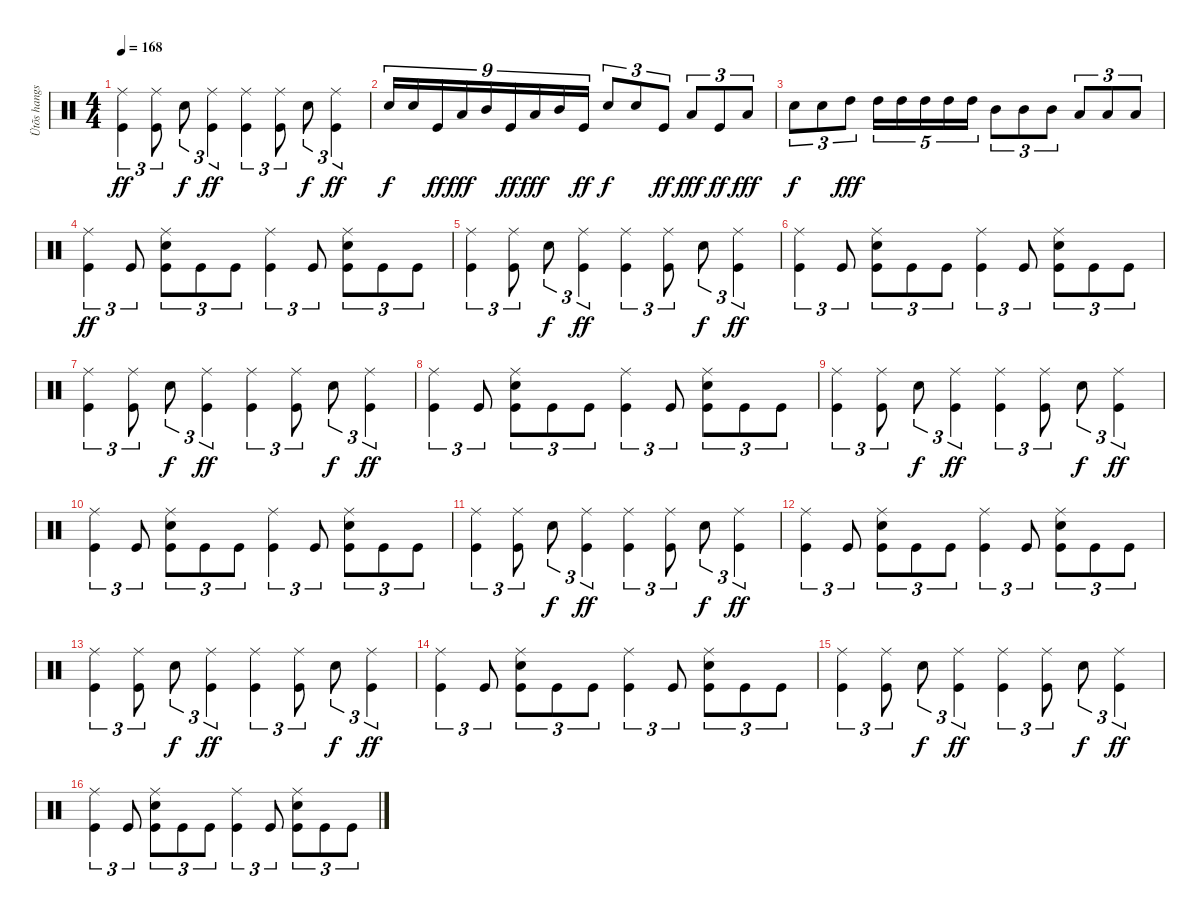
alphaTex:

\track ("Ütõs hangszer" "Ütõs hangs") {instrument percussion}
\staff {score}
\articulation defaults
\ts (4 4)
\tempo 168
\clef neutral
\ks c
("Ride (middle)" "Kick (hit)").4{tu (3 2) dy ff} ("Ride (middle)" "Kick (hit)").8{tu (3 2)} "Electric Snare (hit)".8{tu (3 2) dy f} ("Ride (middle)" "Kick (hit)").4{tu (3 2) dy ff} ("Ride (middle)" "Kick (hit)").4{tu (3 2)} ("Ride (middle)" "Kick (hit)").8{tu (3 2)} "Electric Snare (hit)".8{tu (3 2) dy f} ("Ride (middle)" "Kick (hit)").4{tu (3 2) dy ff} |
"Electric Snare (hit)".16{tu (9 8) dy f} "Electric Snare (hit)".16{tu (9 8)} "Kick (hit)".16{tu (9 8) dy ff} "Low Tom (hit)".16{tu (9 8) dy fff} "Mid Tom (hit)".16{tu (9 8)} "Kick (hit)".16{tu (9 8) dy ff} "Low Tom (hit)".16{tu (9 8) dy fff} "Mid Tom (hit)".16{tu (9 8)} "Kick (hit)".16{tu (9 8) dy ff} "Electric Snare (hit)".8{tu (3 2) dy f} "Electric Snare (hit)".8{tu (3 2)} "Kick (hit)".8{tu (3 2) dy ff} "Low Tom (hit)".8{tu (3 2) dy fff} "Kick (hit)".8{tu (3 2) dy ff} "Low Tom (hit)".8{tu (3 2) dy fff} |
"Electric Snare (hit)".8{tu (3 2) dy f} "Electric Snare (hit)".8{tu (3 2)} "High Tom (hit)".8{tu (3 2) dy fff} "High Tom (hit)".16{tu (5 4)} "High Tom (hit)".16{tu (5 4)} "High Tom (hit)".16{tu (5 4)} "High Tom (hit)".16{tu (5 4)} "High Tom (hit)".16{tu (5 4)} "Mid Tom (hit)".8{tu (3 2)} "Mid Tom (hit)".8{tu (3 2)} "Mid Tom (hit)".8{tu (3 2)} "Low Tom (hit)".8{tu (3 2)} "Low Tom (hit)".8{tu (3 2)} "Low Tom (hit)".8{tu (3 2)} |
("Ride (middle)" "Kick (hit)").4{tu (3 2) dy ff} "Kick (hit)".8{tu (3 2)} ("Ride (middle)" "Electric Snare (hit)" "Kick (hit)").8{tu (3 2)} "Kick (hit)".8{tu (3 2)} "Kick (hit)".8{tu (3 2)} ("Ride (middle)" "Kick (hit)").4{tu (3 2)} "Kick (hit)".8{tu (3 2)} ("Ride (middle)" "Electric Snare (hit)" "Kick (hit)").8{tu (3 2)} "Kick (hit)".8{tu (3 2)} "Kick (hit)".8{tu (3 2)} |
("Ride (middle)" "Kick (hit)").4{tu (3 2)} ("Ride (middle)" "Kick (hit)").8{tu (3 2)} "Electric Snare (hit)".8{tu (3 2) dy f} ("Ride (middle)" "Kick (hit)").4{tu (3 2) dy ff} ("Ride (middle)" "Kick (hit)").4{tu (3 2)} ("Ride (middle)" "Kick (hit)").8{tu (3 2)} "Electric Snare (hit)".8{tu (3 2) dy f} ("Ride (middle)" "Kick (hit)").4{tu (3 2) dy ff} |
("Ride (middle)" "Kick (hit)").4{tu (3 2)} "Kick (hit)".8{tu (3 2)} ("Ride (middle)" "Electric Snare (hit)" "Kick (hit)").8{tu (3 2)} "Kick (hit)".8{tu (3 2)} "Kick (hit)".8{tu (3 2)} ("Ride (middle)" "Kick (hit)").4{tu (3 2)} "Kick (hit)".8{tu (3 2)} ("Ride (middle)" "Electric Snare (hit)" "Kick (hit)").8{tu (3 2)} "Kick (hit)".8{tu (3 2)} "Kick (hit)".8{tu (3 2)} |
("Ride (middle)" "Kick (hit)").4{tu (3 2)} ("Ride (middle)" "Kick (hit)").8{tu (3 2)} "Electric Snare (hit)".8{tu (3 2) dy f} ("Ride (middle)" "Kick (hit)").4{tu (3 2) dy ff} ("Ride (middle)" "Kick (hit)").4{tu (3 2)} ("Ride (middle)" "Kick (hit)").8{tu (3 2)} "Electric Snare (hit)".8{tu (3 2) dy f} ("Ride (middle)" "Kick (hit)").4{tu (3 2) dy ff} |
("Ride (middle)" "Kick (hit)").4{tu (3 2)} "Kick (hit)".8{tu (3 2)} ("Ride (middle)" "Electric Snare (hit)" "Kick (hit)").8{tu (3 2)} "Kick (hit)".8{tu (3 2)} "Kick (hit)".8{tu (3 2)} ("Ride (middle)" "Kick (hit)").4{tu (3 2)} "Kick (hit)".8{tu (3 2)} ("Ride (middle)" "Electric Snare (hit)" "Kick (hit)").8{tu (3 2)} "Kick (hit)".8{tu (3 2)} "Kick (hit)".8{tu (3 2)} |
("Ride (middle)" "Kick (hit)").4{tu (3 2)} ("Ride (middle)" "Kick (hit)").8{tu (3 2)} "Electric Snare (hit)".8{tu (3 2) dy f} ("Ride (middle)" "Kick (hit)").4{tu (3 2) dy ff} ("Ride (middle)" "Kick (hit)").4{tu (3 2)} ("Ride (middle)" "Kick (hit)").8{tu (3 2)} "Electric Snare (hit)".8{tu (3 2) dy f} ("Ride (middle)" "Kick (hit)").4{tu (3 2) dy ff} |
("Ride (middle)" "Kick (hit)").4{tu (3 2)} "Kick (hit)".8{tu (3 2)} ("Ride (middle)" "Electric Snare (hit)" "Kick (hit)").8{tu (3 2)} "Kick (hit)".8{tu (3 2)} "Kick (hit)".8{tu (3 2)} ("Ride (middle)" "Kick (hit)").4{tu (3 2)} "Kick (hit)".8{tu (3 2)} ("Ride (middle)" "Electric Snare (hit)" "Kick (hit)").8{tu (3 2)} "Kick (hit)".8{tu (3 2)} "Kick (hit)".8{tu (3 2)} |
("Ride (middle)" "Kick (hit)").4{tu (3 2)} ("Ride (middle)" "Kick (hit)").8{tu (3 2)} "Electric Snare (hit)".8{tu (3 2) dy f} ("Ride (middle)" "Kick (hit)").4{tu (3 2) dy ff} ("Ride (middle)" "Kick (hit)").4{tu (3 2)} ("Ride (middle)" "Kick (hit)").8{tu (3 2)} "Electric Snare (hit)".8{tu (3 2) dy f} ("Ride (middle)" "Kick (hit)").4{tu (3 2) dy ff} |
("Ride (middle)" "Kick (hit)").4{tu (3 2)} "Kick (hit)".8{tu (3 2)} ("Ride (middle)" "Electric Snare (hit)" "Kick (hit)").8{tu (3 2)} "Kick (hit)".8{tu (3 2)} "Kick (hit)".8{tu (3 2)} ("Ride (middle)" "Kick (hit)").4{tu (3 2)} "Kick (hit)".8{tu (3 2)} ("Ride (middle)" "Electric Snare (hit)" "Kick (hit)").8{tu (3 2)} "Kick (hit)".8{tu (3 2)} "Kick (hit)".8{tu (3 2)} |
("Ride (middle)" "Kick (hit)").4{tu (3 2)} ("Ride (middle)" "Kick (hit)").8{tu (3 2)} "Electric Snare (hit)".8{tu (3 2) dy f} ("Ride (middle)" "Kick (hit)").4{tu (3 2) dy ff} ("Ride (middle)" "Kick (hit)").4{tu (3 2)} ("Ride (middle)" "Kick (hit)").8{tu (3 2)} "Electric Snare (hit)".8{tu (3 2) dy f} ("Ride (middle)" "Kick (hit)").4{tu (3 2) dy ff} |
("Ride (middle)" "Kick (hit)").4{tu (3 2)} "Kick (hit)".8{tu (3 2)} ("Ride (middle)" "Electric Snare (hit)" "Kick (hit)").8{tu (3 2)} "Kick (hit)".8{tu (3 2)} "Kick (hit)".8{tu (3 2)} ("Ride (middle)" "Kick (hit)").4{tu (3 2)} "Kick (hit)".8{tu (3 2)} ("Ride (middle)" "Electric Snare (hit)" "Kick (hit)").8{tu (3 2)} "Kick (hit)".8{tu (3 2)} "Kick (hit)".8{tu (3 2)} |
("Ride (middle)" "Kick (hit)").4{tu (3 2)} ("Ride (middle)" "Kick (hit)").8{tu (3 2)} "Electric Snare (hit)".8{tu (3 2) dy f} ("Ride (middle)" "Kick (hit)").4{tu (3 2) dy ff} ("Ride (middle)" "Kick (hit)").4{tu (3 2)} ("Ride (middle)" "Kick (hit)").8{tu (3 2)} "Electric Snare (hit)".8{tu (3 2) dy f} ("Ride (middle)" "Kick (hit)").4{tu (3 2) dy ff} |
("Ride (middle)" "Kick (hit)").4{tu (3 2)} "Kick (hit)".8{tu (3 2)} ("Ride (middle)" "Electric Snare (hit)" "Kick (hit)").8{tu (3 2)} "Kick (hit)".8{tu (3 2)} "Kick (hit)".8{tu (3 2)} ("Ride (middle)" "Kick (hit)").4{tu (3 2)} "Kick (hit)".8{tu (3 2)} ("Ride (middle)" "Electric Snare (hit)" "Kick (hit)").8{tu (3 2)} "Kick (hit)".8{tu (3 2)} "Kick (hit)".8{tu (3 2)}
